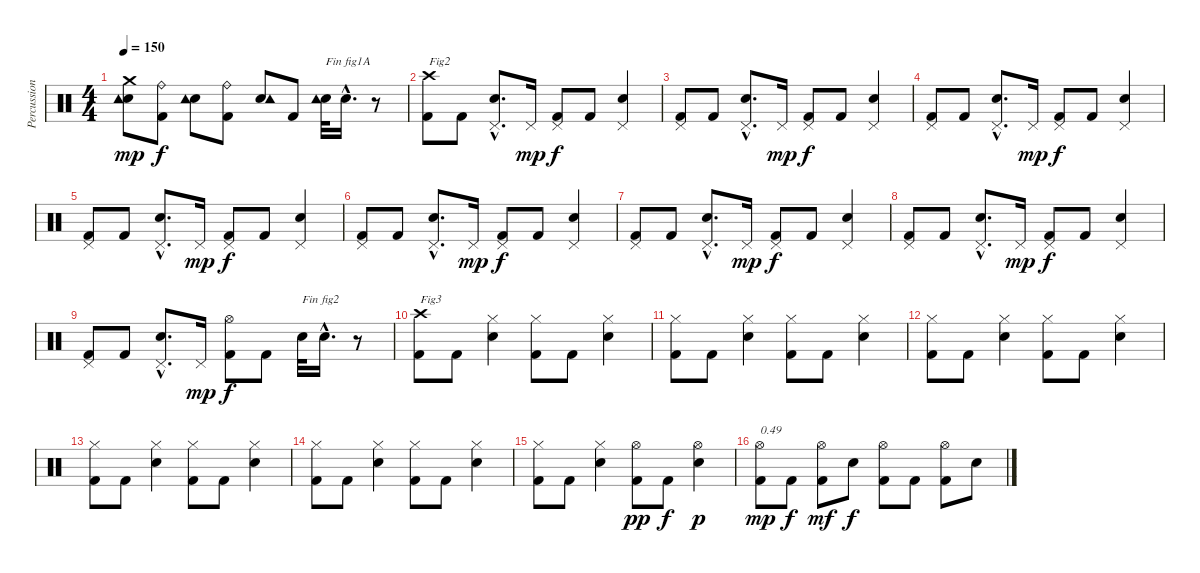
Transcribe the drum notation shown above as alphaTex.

\track ("Percussions" "Percussion") {instrument percussion}
\staff {score}
\articulation defaults
\ts (4 4)
\tempo 150
\clef neutral
\ks c
("Electric Snare (hit)" "Crash medium (hit)" "Tambourine (hit)").8{dy mp} ("Kick (hit) 2" "Ride (bell)").8{dy f} ("Electric Snare (hit)" "Tambourine (hit)").8 ("Kick (hit) 2" "Ride (bell)").8 ("Electric Snare (hit)" "Tambourine (hit)").8 "Kick (hit) 2".8 ("Electric Snare (hit)" "Tambourine (hit)").32{txt "Fin fig1A"} "Electric Snare (hit)"{hac}.16{d} r.8 |
("Kick (hit) 2" "Crash high (hit)").8{txt "Fig2"} "Kick (hit) 2".8 ("Electric Snare (hit)"{hac} "Pedal Hi-Hat (hit)"{hac}).8{d} "Pedal Hi-Hat (hit)".16{dy mp} ("Kick (hit) 2" "Pedal Hi-Hat (hit)").8{dy f} "Kick (hit) 2".8 ("Electric Snare (hit)" "Pedal Hi-Hat (hit)").4 |
("Kick (hit) 2" "Pedal Hi-Hat (hit)").8 "Kick (hit) 2".8 ("Electric Snare (hit)"{hac} "Pedal Hi-Hat (hit)"{hac}).8{d} "Pedal Hi-Hat (hit)".16{dy mp} ("Kick (hit) 2" "Pedal Hi-Hat (hit)").8{dy f} "Kick (hit) 2".8 ("Electric Snare (hit)" "Pedal Hi-Hat (hit)").4 |
("Kick (hit) 2" "Pedal Hi-Hat (hit)").8 "Kick (hit) 2".8 ("Electric Snare (hit)"{hac} "Pedal Hi-Hat (hit)"{hac}).8{d} "Pedal Hi-Hat (hit)".16{dy mp} ("Kick (hit) 2" "Pedal Hi-Hat (hit)").8{dy f} "Kick (hit) 2".8 ("Electric Snare (hit)" "Pedal Hi-Hat (hit)").4 |
("Kick (hit) 2" "Pedal Hi-Hat (hit)").8 "Kick (hit) 2".8 ("Electric Snare (hit)"{hac} "Pedal Hi-Hat (hit)"{hac}).8{d} "Pedal Hi-Hat (hit)".16{dy mp} ("Kick (hit) 2" "Pedal Hi-Hat (hit)").8{dy f} "Kick (hit) 2".8 ("Electric Snare (hit)" "Pedal Hi-Hat (hit)").4 |
("Kick (hit) 2" "Pedal Hi-Hat (hit)").8 "Kick (hit) 2".8 ("Electric Snare (hit)"{hac} "Pedal Hi-Hat (hit)"{hac}).8{d} "Pedal Hi-Hat (hit)".16{dy mp} ("Kick (hit) 2" "Pedal Hi-Hat (hit)").8{dy f} "Kick (hit) 2".8 ("Electric Snare (hit)" "Pedal Hi-Hat (hit)").4 |
("Kick (hit) 2" "Pedal Hi-Hat (hit)").8 "Kick (hit) 2".8 ("Electric Snare (hit)"{hac} "Pedal Hi-Hat (hit)"{hac}).8{d} "Pedal Hi-Hat (hit)".16{dy mp} ("Kick (hit) 2" "Pedal Hi-Hat (hit)").8{dy f} "Kick (hit) 2".8 ("Electric Snare (hit)" "Pedal Hi-Hat (hit)").4 |
("Kick (hit) 2" "Pedal Hi-Hat (hit)").8 "Kick (hit) 2".8 ("Electric Snare (hit)"{hac} "Pedal Hi-Hat (hit)"{hac}).8{d} "Pedal Hi-Hat (hit)".16{dy mp} ("Kick (hit) 2" "Pedal Hi-Hat (hit)").8{dy f} "Kick (hit) 2".8 ("Electric Snare (hit)" "Pedal Hi-Hat (hit)").4 |
("Kick (hit) 2" "Pedal Hi-Hat (hit)").8 "Kick (hit) 2".8 ("Electric Snare (hit)"{hac} "Pedal Hi-Hat (hit)"{hac}).8{d} "Pedal Hi-Hat (hit)".16{dy mp} ("Kick (hit) 2" "Hi-Hat (open)").8{dy f} "Kick (hit) 2".8 "Electric Snare (hit)".32{txt "Fin fig2"} "Electric Snare (hit)"{hac}.16{d} r.8 |
("Kick (hit) 2" "Crash high (hit)").8{txt "Fig3"} "Kick (hit) 2".8 ("Electric Snare (hit)" "Hi-Hat (closed)").4 ("Kick (hit) 2" "Hi-Hat (closed)").8 "Kick (hit) 2".8 ("Electric Snare (hit)" "Hi-Hat (closed)").4 |
("Kick (hit) 2" "Hi-Hat (closed)").8 "Kick (hit) 2".8 ("Electric Snare (hit)" "Hi-Hat (closed)").4 ("Kick (hit) 2" "Hi-Hat (closed)").8 "Kick (hit) 2".8 ("Electric Snare (hit)" "Hi-Hat (closed)").4 |
("Kick (hit) 2" "Hi-Hat (closed)").8 "Kick (hit) 2".8 ("Electric Snare (hit)" "Hi-Hat (closed)").4 ("Kick (hit) 2" "Hi-Hat (closed)").8 "Kick (hit) 2".8 ("Electric Snare (hit)" "Hi-Hat (closed)").4 |
("Kick (hit) 2" "Hi-Hat (closed)").8 "Kick (hit) 2".8 ("Electric Snare (hit)" "Hi-Hat (closed)").4 ("Kick (hit) 2" "Hi-Hat (closed)").8 "Kick (hit) 2".8 ("Electric Snare (hit)" "Hi-Hat (closed)").4 |
("Kick (hit) 2" "Hi-Hat (closed)").8 "Kick (hit) 2".8 ("Electric Snare (hit)" "Hi-Hat (closed)").4 ("Kick (hit) 2" "Hi-Hat (closed)").8 "Kick (hit) 2".8 ("Electric Snare (hit)" "Hi-Hat (closed)").4 |
("Kick (hit) 2" "Hi-Hat (closed)").8 "Kick (hit) 2".8 ("Electric Snare (hit)" "Hi-Hat (closed)").4 ("Kick (hit) 2" "Hi-Hat (open)").8{dy pp} "Kick (hit) 2".8{dy f} ("Electric Snare (hit)" "Hi-Hat (open)").4{dy p} |
("Kick (hit) 2" "Hi-Hat (open)").8{txt "0.49" dy mp} "Kick (hit) 2".8{dy f} ("Kick (hit) 2" "Hi-Hat (open)").8{dy mf} "Electric Snare (hit)".8{dy f} ("Kick (hit) 2" "Hi-Hat (open)").8 "Kick (hit) 2".8 ("Kick (hit) 2" "Hi-Hat (open)").8 "Electric Snare (hit)".8
